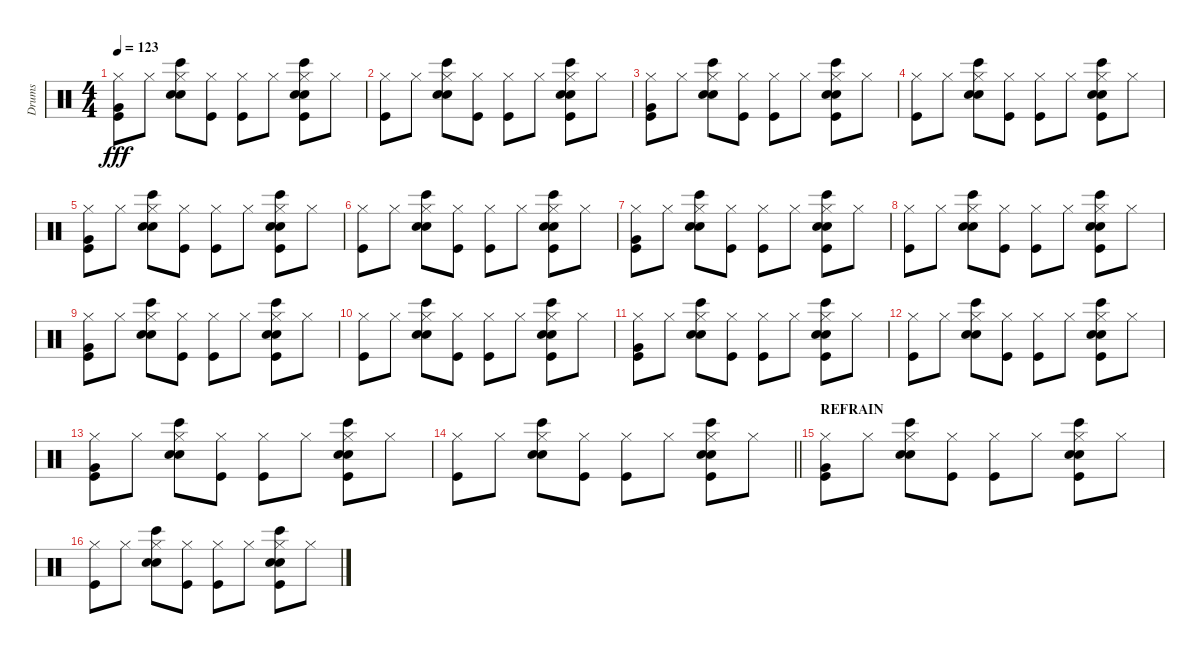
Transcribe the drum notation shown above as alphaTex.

\track ("Drums" "Drums") {instrument percussion}
\staff {score}
\articulation defaults
\ts (4 4)
\tempo 123
\clef neutral
\ks c
("Kick (hit)" "Hi-Hat (closed)" "Very Low Tom (hit)").8{dy fff} "Hi-Hat (closed)".8 ("Hi-Hat (closed)" "Bongo High (hit)" "Hand Clap (hit)" "Electric Snare (hit)").8 ("Kick (hit)" "Hi-Hat (closed)").8 ("Hi-Hat (closed)" "Kick (hit)").8 "Hi-Hat (closed)".8 ("Hi-Hat (closed)" "Kick (hit)" "Electric Snare (hit)" "Hand Clap (hit)" "Bongo High (hit)").8 "Hi-Hat (closed)".8 |
("Hi-Hat (closed)" "Kick (hit)").8 "Hi-Hat (closed)".8 ("Hi-Hat (closed)" "Electric Snare (hit)" "Bongo High (hit)" "Hand Clap (hit)").8 ("Hi-Hat (closed)" "Kick (hit)").8 ("Hi-Hat (closed)" "Kick (hit)").8 "Hi-Hat (closed)".8 ("Hi-Hat (closed)" "Kick (hit)" "Electric Snare (hit)" "Bongo High (hit)" "Hand Clap (hit)").8 "Hi-Hat (closed)".8 |
("Kick (hit)" "Hi-Hat (closed)" "Very Low Tom (hit)").8 "Hi-Hat (closed)".8 ("Hi-Hat (closed)" "Bongo High (hit)" "Hand Clap (hit)" "Electric Snare (hit)").8 ("Kick (hit)" "Hi-Hat (closed)").8 ("Hi-Hat (closed)" "Kick (hit)").8 "Hi-Hat (closed)".8 ("Hi-Hat (closed)" "Kick (hit)" "Electric Snare (hit)" "Hand Clap (hit)" "Bongo High (hit)").8 "Hi-Hat (closed)".8 |
("Hi-Hat (closed)" "Kick (hit)").8 "Hi-Hat (closed)".8 ("Hi-Hat (closed)" "Electric Snare (hit)" "Bongo High (hit)" "Hand Clap (hit)").8 ("Hi-Hat (closed)" "Kick (hit)").8 ("Hi-Hat (closed)" "Kick (hit)").8 "Hi-Hat (closed)".8 ("Hi-Hat (closed)" "Kick (hit)" "Electric Snare (hit)" "Bongo High (hit)" "Hand Clap (hit)").8 "Hi-Hat (closed)".8 |
("Kick (hit)" "Hi-Hat (closed)" "Very Low Tom (hit)").8 "Hi-Hat (closed)".8 ("Hi-Hat (closed)" "Bongo High (hit)" "Hand Clap (hit)" "Electric Snare (hit)").8 ("Kick (hit)" "Hi-Hat (closed)").8 ("Hi-Hat (closed)" "Kick (hit)").8 "Hi-Hat (closed)".8 ("Hi-Hat (closed)" "Kick (hit)" "Electric Snare (hit)" "Hand Clap (hit)" "Bongo High (hit)").8 "Hi-Hat (closed)".8 |
("Hi-Hat (closed)" "Kick (hit)").8 "Hi-Hat (closed)".8 ("Hi-Hat (closed)" "Electric Snare (hit)" "Bongo High (hit)" "Hand Clap (hit)").8 ("Hi-Hat (closed)" "Kick (hit)").8 ("Hi-Hat (closed)" "Kick (hit)").8 "Hi-Hat (closed)".8 ("Hi-Hat (closed)" "Kick (hit)" "Electric Snare (hit)" "Bongo High (hit)" "Hand Clap (hit)").8 "Hi-Hat (closed)".8 |
("Kick (hit)" "Hi-Hat (closed)" "Very Low Tom (hit)").8 "Hi-Hat (closed)".8 ("Hi-Hat (closed)" "Bongo High (hit)" "Hand Clap (hit)" "Electric Snare (hit)").8 ("Kick (hit)" "Hi-Hat (closed)").8 ("Hi-Hat (closed)" "Kick (hit)").8 "Hi-Hat (closed)".8 ("Hi-Hat (closed)" "Kick (hit)" "Electric Snare (hit)" "Hand Clap (hit)" "Bongo High (hit)").8 "Hi-Hat (closed)".8 |
("Hi-Hat (closed)" "Kick (hit)").8 "Hi-Hat (closed)".8 ("Hi-Hat (closed)" "Electric Snare (hit)" "Bongo High (hit)" "Hand Clap (hit)").8 ("Hi-Hat (closed)" "Kick (hit)").8 ("Hi-Hat (closed)" "Kick (hit)").8 "Hi-Hat (closed)".8 ("Hi-Hat (closed)" "Kick (hit)" "Electric Snare (hit)" "Bongo High (hit)" "Hand Clap (hit)").8 "Hi-Hat (closed)".8 |
("Kick (hit)" "Hi-Hat (closed)" "Very Low Tom (hit)").8 "Hi-Hat (closed)".8 ("Hi-Hat (closed)" "Bongo High (hit)" "Hand Clap (hit)" "Electric Snare (hit)").8 ("Kick (hit)" "Hi-Hat (closed)").8 ("Hi-Hat (closed)" "Kick (hit)").8 "Hi-Hat (closed)".8 ("Hi-Hat (closed)" "Kick (hit)" "Electric Snare (hit)" "Hand Clap (hit)" "Bongo High (hit)").8 "Hi-Hat (closed)".8 |
("Hi-Hat (closed)" "Kick (hit)").8 "Hi-Hat (closed)".8 ("Hi-Hat (closed)" "Electric Snare (hit)" "Bongo High (hit)" "Hand Clap (hit)").8 ("Hi-Hat (closed)" "Kick (hit)").8 ("Hi-Hat (closed)" "Kick (hit)").8 "Hi-Hat (closed)".8 ("Hi-Hat (closed)" "Kick (hit)" "Electric Snare (hit)" "Bongo High (hit)" "Hand Clap (hit)").8 "Hi-Hat (closed)".8 |
("Kick (hit)" "Hi-Hat (closed)" "Very Low Tom (hit)").8 "Hi-Hat (closed)".8 ("Hi-Hat (closed)" "Bongo High (hit)" "Hand Clap (hit)" "Electric Snare (hit)").8 ("Kick (hit)" "Hi-Hat (closed)").8 ("Hi-Hat (closed)" "Kick (hit)").8 "Hi-Hat (closed)".8 ("Hi-Hat (closed)" "Kick (hit)" "Electric Snare (hit)" "Hand Clap (hit)" "Bongo High (hit)").8 "Hi-Hat (closed)".8 |
("Hi-Hat (closed)" "Kick (hit)").8 "Hi-Hat (closed)".8 ("Hi-Hat (closed)" "Electric Snare (hit)" "Bongo High (hit)" "Hand Clap (hit)").8 ("Hi-Hat (closed)" "Kick (hit)").8 ("Hi-Hat (closed)" "Kick (hit)").8 "Hi-Hat (closed)".8 ("Hi-Hat (closed)" "Kick (hit)" "Electric Snare (hit)" "Bongo High (hit)" "Hand Clap (hit)").8 "Hi-Hat (closed)".8 |
("Kick (hit)" "Hi-Hat (closed)" "Very Low Tom (hit)").8 "Hi-Hat (closed)".8 ("Hi-Hat (closed)" "Bongo High (hit)" "Hand Clap (hit)" "Electric Snare (hit)").8 ("Kick (hit)" "Hi-Hat (closed)").8 ("Hi-Hat (closed)" "Kick (hit)").8 "Hi-Hat (closed)".8 ("Hi-Hat (closed)" "Kick (hit)" "Electric Snare (hit)" "Hand Clap (hit)" "Bongo High (hit)").8 "Hi-Hat (closed)".8 |
\barLineRight lightlight
("Hi-Hat (closed)" "Kick (hit)").8 "Hi-Hat (closed)".8 ("Hi-Hat (closed)" "Electric Snare (hit)" "Bongo High (hit)" "Hand Clap (hit)").8 ("Hi-Hat (closed)" "Kick (hit)").8 ("Hi-Hat (closed)" "Kick (hit)").8 "Hi-Hat (closed)".8 ("Hi-Hat (closed)" "Kick (hit)" "Electric Snare (hit)" "Bongo High (hit)" "Hand Clap (hit)").8 "Hi-Hat (closed)".8 |
\section ("" "REFRAIN")
("Kick (hit)" "Hi-Hat (closed)" "Very Low Tom (hit)").8 "Hi-Hat (closed)".8 ("Hi-Hat (closed)" "Bongo High (hit)" "Hand Clap (hit)" "Electric Snare (hit)").8 ("Kick (hit)" "Hi-Hat (closed)").8 ("Hi-Hat (closed)" "Kick (hit)").8 "Hi-Hat (closed)".8 ("Hi-Hat (closed)" "Kick (hit)" "Electric Snare (hit)" "Hand Clap (hit)" "Bongo High (hit)").8 "Hi-Hat (closed)".8 |
("Hi-Hat (closed)" "Kick (hit)").8 "Hi-Hat (closed)".8 ("Hi-Hat (closed)" "Electric Snare (hit)" "Bongo High (hit)" "Hand Clap (hit)").8 ("Hi-Hat (closed)" "Kick (hit)").8 ("Hi-Hat (closed)" "Kick (hit)").8 "Hi-Hat (closed)".8 ("Hi-Hat (closed)" "Kick (hit)" "Electric Snare (hit)" "Bongo High (hit)" "Hand Clap (hit)").8 "Hi-Hat (closed)".8
